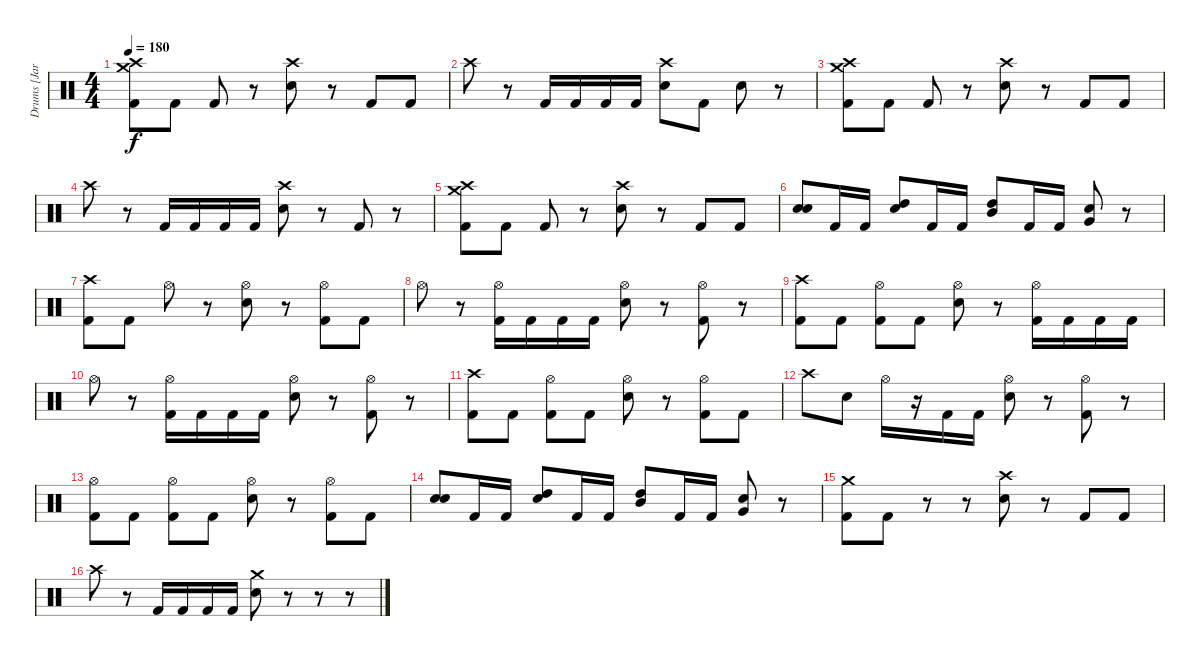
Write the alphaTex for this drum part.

\track ("Drums [Jared]" "Drums [Jar") {instrument percussion}
\staff {score}
\articulation defaults
\ts (4 4)
\tempo 180
\clef neutral
\ks c
("Crash medium (hit)" "Crash high (hit)" "Kick (hit) 2").8{dy f} "Kick (hit) 2".8 "Kick (hit) 2".8 r.8 ("Crash high (hit)" "Electric Snare (hit)").8 r.8 "Kick (hit) 2".8 "Kick (hit) 2".8 |
"Crash high (hit)".8 r.8 "Kick (hit) 2".16 "Kick (hit) 2".16 "Kick (hit) 2".16 "Kick (hit) 2".16 ("Crash high (hit)" "Electric Snare (hit)").8 "Kick (hit) 2".8 "Electric Snare (hit)".8 r.8 |
("Crash medium (hit)" "Crash high (hit)" "Kick (hit) 2").8 "Kick (hit) 2".8 "Kick (hit) 2".8 r.8 ("Crash high (hit)" "Electric Snare (hit)").8 r.8 "Kick (hit) 2".8 "Kick (hit) 2".8 |
"Crash high (hit)".8 r.8 "Kick (hit) 2".16 "Kick (hit) 2".16 "Kick (hit) 2".16 "Kick (hit) 2".16 ("Crash high (hit)" "Electric Snare (hit)").8 r.8 "Kick (hit) 2".8 r.8 |
("Crash medium (hit)" "Crash high (hit)" "Kick (hit) 2").8 "Kick (hit) 2".8 "Kick (hit) 2".8 r.8 ("Crash high (hit)" "Electric Snare (hit)").8 r.8 "Kick (hit) 2".8 "Kick (hit) 2".8 |
("Electric Snare (hit)" "Electric Snare (hit)").8 "Kick (hit) 2".16 "Kick (hit) 2".16 ("High Tom (hit)" "Electric Snare (hit)").8 "Kick (hit) 2".16 "Kick (hit) 2".16 ("Mid Tom (hit)" "High Tom (hit)").8 "Kick (hit) 2".16 "Kick (hit) 2".16 ("Very Low Tom (hit)" "Electric Snare (hit)").8 r.8 |
("Crash high (hit)" "Kick (hit) 2").8 "Kick (hit) 2".8 "Hi-Hat (open)".8 r.8 ("Hi-Hat (open)" "Electric Snare (hit)").8 r.8 ("Hi-Hat (open)" "Kick (hit) 2").8 "Kick (hit) 2".8 |
"Hi-Hat (open)".8 r.8 ("Hi-Hat (open)" "Kick (hit) 2").16 "Kick (hit) 2".16 "Kick (hit) 2".16 "Kick (hit) 2".16 ("Hi-Hat (open)" "Electric Snare (hit)").8 r.8 ("Hi-Hat (open)" "Kick (hit) 2").8 r.8 |
("Crash high (hit)" "Kick (hit) 2").8 "Kick (hit) 2".8 ("Hi-Hat (open)" "Kick (hit) 2").8 "Kick (hit) 2".8 ("Hi-Hat (open)" "Electric Snare (hit)").8 r.8 ("Hi-Hat (open)" "Kick (hit) 2").16 "Kick (hit) 2".16 "Kick (hit) 2".16 "Kick (hit) 2".16 |
"Hi-Hat (open)".8 r.8 ("Hi-Hat (open)" "Kick (hit) 2").16 "Kick (hit) 2".16 "Kick (hit) 2".16 "Kick (hit) 2".16 ("Hi-Hat (open)" "Electric Snare (hit)").8 r.8 ("Hi-Hat (open)" "Kick (hit) 2").8 r.8 |
("Crash high (hit)" "Kick (hit) 2").8 "Kick (hit) 2".8 ("Hi-Hat (open)" "Kick (hit) 2").8 "Kick (hit) 2".8 ("Hi-Hat (open)" "Electric Snare (hit)").8 r.8 ("Hi-Hat (open)" "Kick (hit) 2").8 "Kick (hit) 2".8 |
"Crash high (hit)".8 "Electric Snare (hit)".8 "Hi-Hat (open)".16 r.16 "Kick (hit) 2".16 "Kick (hit) 2".16 ("Hi-Hat (open)" "Electric Snare (hit)").8 r.8 ("Hi-Hat (open)" "Kick (hit) 2").8 r.8 |
("Hi-Hat (open)" "Kick (hit) 2").8 "Kick (hit) 2".8 ("Hi-Hat (open)" "Kick (hit) 2").8 "Kick (hit) 2".8 ("Hi-Hat (open)" "Electric Snare (hit)").8 r.8 ("Hi-Hat (open)" "Kick (hit) 2").8 "Kick (hit) 2".8 |
("Electric Snare (hit)" "Electric Snare (hit)").8 "Kick (hit) 2".16 "Kick (hit) 2".16 ("High Tom (hit)" "Electric Snare (hit)").8 "Kick (hit) 2".16 "Kick (hit) 2".16 ("Mid Tom (hit)" "High Tom (hit)").8 "Kick (hit) 2".16 "Kick (hit) 2".16 ("Very Low Tom (hit)" "Electric Snare (hit)").8 r.8 |
("Crash medium (hit)" "Kick (hit) 2").8 "Kick (hit) 2".8 r.8 r.8 ("Crash high (hit)" "Electric Snare (hit)").8 r.8 "Kick (hit) 2".8 "Kick (hit) 2".8 |
"Crash high (hit)".8 r.8 "Kick (hit) 2".16 "Kick (hit) 2".16 "Kick (hit) 2".16 "Kick (hit) 2".16 ("Crash medium (hit)" "Electric Snare (hit)").8 r.8 r.8 r.8
